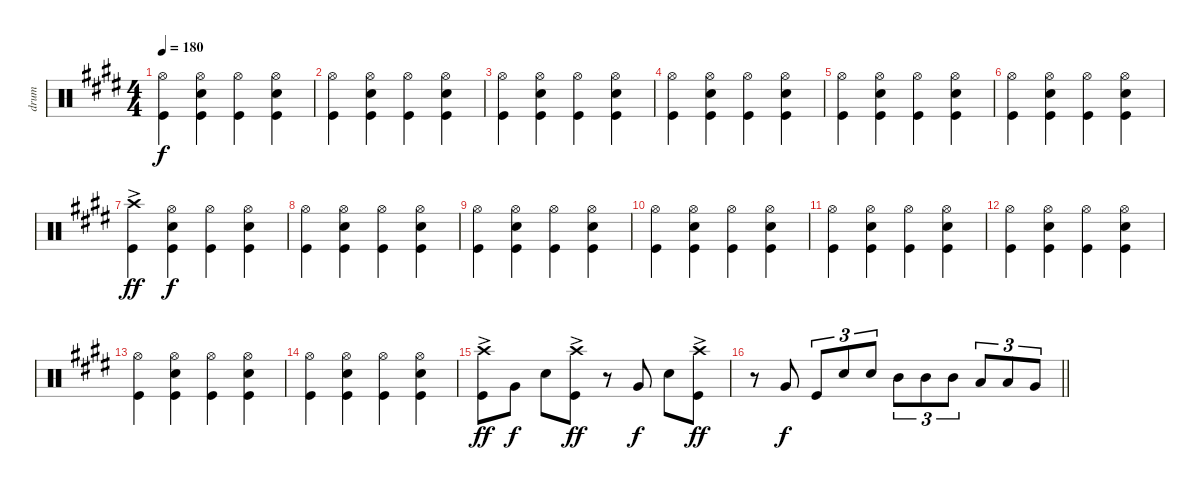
\track ("drum" "drum") {instrument percussion}
\staff {score}
\articulation defaults
\ts (4 4)
\tempo 180
\clef neutral
\ks e
("Hi-Hat (open)" "Kick (hit)").4{dy f} ("Hi-Hat (open)" "Snare (hit) 2" "Kick (hit)").4 ("Hi-Hat (open)" "Kick (hit)").4 ("Hi-Hat (open)" "Snare (hit) 2" "Kick (hit)").4 |
("Hi-Hat (open)" "Kick (hit)").4 ("Hi-Hat (open)" "Snare (hit) 2" "Kick (hit)").4 ("Hi-Hat (open)" "Kick (hit)").4 ("Hi-Hat (open)" "Snare (hit) 2" "Kick (hit)").4 |
("Hi-Hat (open)" "Kick (hit)").4 ("Hi-Hat (open)" "Snare (hit) 2" "Kick (hit)").4 ("Hi-Hat (open)" "Kick (hit)").4 ("Hi-Hat (open)" "Snare (hit) 2" "Kick (hit)").4 |
("Hi-Hat (open)" "Kick (hit)").4 ("Hi-Hat (open)" "Snare (hit) 2" "Kick (hit)").4 ("Hi-Hat (open)" "Kick (hit)").4 ("Hi-Hat (open)" "Snare (hit) 2" "Kick (hit)").4 |
("Hi-Hat (open)" "Kick (hit)").4 ("Hi-Hat (open)" "Snare (hit) 2" "Kick (hit)").4 ("Hi-Hat (open)" "Kick (hit)").4 ("Hi-Hat (open)" "Snare (hit) 2" "Kick (hit)").4 |
("Hi-Hat (open)" "Kick (hit)").4 ("Hi-Hat (open)" "Snare (hit) 2" "Kick (hit)").4 ("Hi-Hat (open)" "Kick (hit)").4 ("Hi-Hat (open)" "Snare (hit) 2" "Kick (hit)").4 |
("Crash high (hit)"{ac} "Kick (hit)").4{dy ff} ("Hi-Hat (open)" "Snare (hit) 2" "Kick (hit)").4{dy f} ("Hi-Hat (open)" "Kick (hit)").4 ("Hi-Hat (open)" "Snare (hit) 2" "Kick (hit)").4 |
("Hi-Hat (open)" "Kick (hit)").4 ("Hi-Hat (open)" "Snare (hit) 2" "Kick (hit)").4 ("Hi-Hat (open)" "Kick (hit)").4 ("Hi-Hat (open)" "Snare (hit) 2" "Kick (hit)").4 |
("Hi-Hat (open)" "Kick (hit)").4 ("Hi-Hat (open)" "Snare (hit) 2" "Kick (hit)").4 ("Hi-Hat (open)" "Kick (hit)").4 ("Hi-Hat (open)" "Snare (hit) 2" "Kick (hit)").4 |
("Hi-Hat (open)" "Kick (hit)").4 ("Hi-Hat (open)" "Snare (hit) 2" "Kick (hit)").4 ("Hi-Hat (open)" "Kick (hit)").4 ("Hi-Hat (open)" "Snare (hit) 2" "Kick (hit)").4 |
("Hi-Hat (open)" "Kick (hit)").4 ("Hi-Hat (open)" "Snare (hit) 2" "Kick (hit)").4 ("Hi-Hat (open)" "Kick (hit)").4 ("Hi-Hat (open)" "Snare (hit) 2" "Kick (hit)").4 |
("Hi-Hat (open)" "Kick (hit)").4 ("Hi-Hat (open)" "Snare (hit) 2" "Kick (hit)").4 ("Hi-Hat (open)" "Kick (hit)").4 ("Hi-Hat (open)" "Snare (hit) 2" "Kick (hit)").4 |
("Hi-Hat (open)" "Kick (hit)").4 ("Hi-Hat (open)" "Snare (hit) 2" "Kick (hit)").4 ("Hi-Hat (open)" "Kick (hit)").4 ("Hi-Hat (open)" "Snare (hit) 2" "Kick (hit)").4 |
("Hi-Hat (open)" "Kick (hit)").4 ("Hi-Hat (open)" "Snare (hit) 2" "Kick (hit)").4 ("Hi-Hat (open)" "Kick (hit)").4 ("Hi-Hat (open)" "Snare (hit) 2" "Kick (hit)").4 |
("Crash high (hit)"{ac} "Kick (hit)").8{dy ff} "Very Low Tom (hit)".8{dy f} "Snare (hit) 2".8 ("Crash high (hit)"{ac} "Kick (hit)").8{dy ff} r.8 "Very Low Tom (hit)".8{dy f} "Snare (hit) 2".8 ("Crash high (hit)"{ac} "Kick (hit)").8{dy ff} |
\barLineRight lightlight
r.8 "Very Low Tom (hit)".8{dy f} "Kick (hit)".8{tu (3 2)} "Snare (hit) 2".8{tu (3 2)} "Snare (hit) 2".8{tu (3 2)} "Mid Tom (hit)".8{tu (3 2)} "Mid Tom (hit)".8{tu (3 2)} "Mid Tom (hit)".8{tu (3 2)} "Low Tom (hit)".8{tu (3 2)} "Low Tom (hit)".8{tu (3 2)} "Very Low Tom (hit)".8{tu (3 2)}
